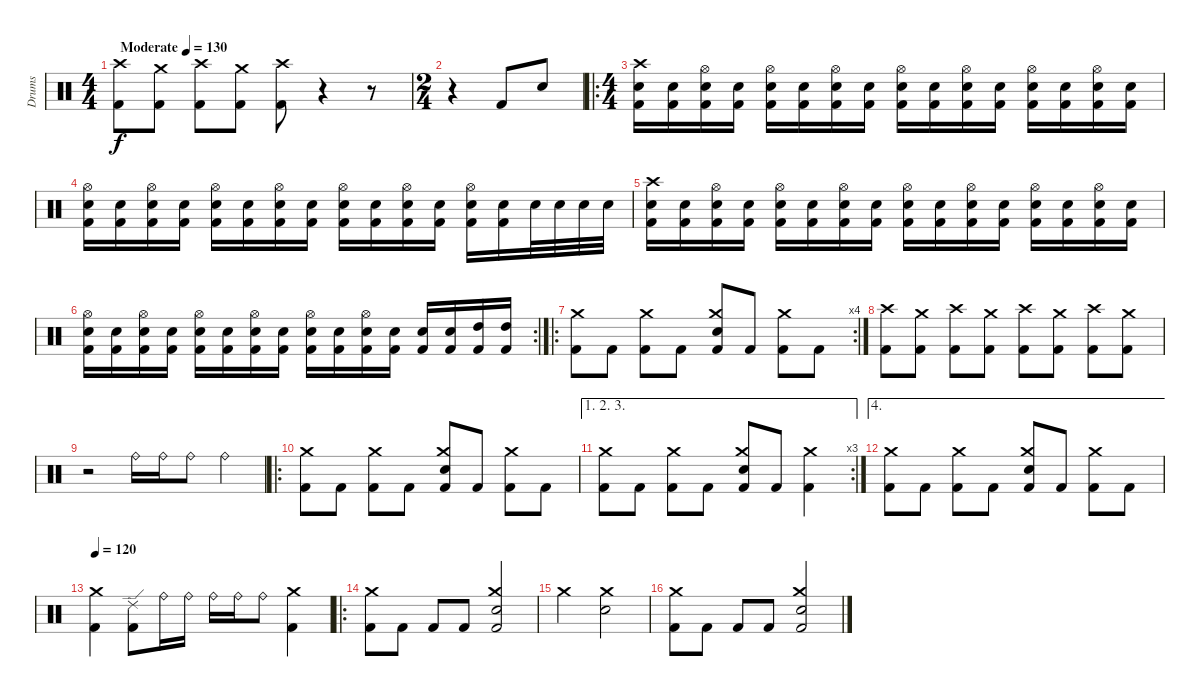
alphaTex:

\track ("Drums" "Drums") {instrument percussion}
\staff {score}
\articulation defaults
\ts (4 4)
\tempo (130 "Moderate")
\clef neutral
\ks c
("Crash high (hit)" "Kick (hit) 2").8{dy f} ("Crash medium (hit)" "Kick (hit) 2").8 ("Crash high (hit)" "Kick (hit) 2").8 ("Crash medium (hit)" "Kick (hit) 2").8 ("Crash high (hit)" "Kick (hit) 2").8 r.4 r.8 |
\ts (2 4)
r.4 "Kick (hit) 2".8 "Electric Snare (hit)".8 |
\ro
\ts (4 4)
("Crash high (hit)" "Electric Snare (hit)" "Kick (hit) 2").16 ("Electric Snare (hit)" "Kick (hit) 2").16 ("Hi-Hat (open)" "Electric Snare (hit)" "Kick (hit) 2").16 ("Electric Snare (hit)" "Kick (hit) 2").16 ("Hi-Hat (open)" "Electric Snare (hit)" "Kick (hit) 2").16 ("Electric Snare (hit)" "Kick (hit) 2").16 ("Hi-Hat (open)" "Electric Snare (hit)" "Kick (hit) 2").16 ("Electric Snare (hit)" "Kick (hit) 2").16 ("Hi-Hat (open)" "Electric Snare (hit)" "Kick (hit) 2").16 ("Electric Snare (hit)" "Kick (hit) 2").16 ("Hi-Hat (open)" "Electric Snare (hit)" "Kick (hit) 2").16 ("Electric Snare (hit)" "Kick (hit) 2").16 ("Hi-Hat (open)" "Electric Snare (hit)" "Kick (hit) 2").16 ("Electric Snare (hit)" "Kick (hit) 2").16 ("Hi-Hat (open)" "Electric Snare (hit)" "Kick (hit) 2").16 ("Electric Snare (hit)" "Kick (hit) 2").16 |
("Hi-Hat (open)" "Electric Snare (hit)" "Kick (hit) 2").16 ("Electric Snare (hit)" "Kick (hit) 2").16 ("Hi-Hat (open)" "Electric Snare (hit)" "Kick (hit) 2").16 ("Electric Snare (hit)" "Kick (hit) 2").16 ("Hi-Hat (open)" "Electric Snare (hit)" "Kick (hit) 2").16 ("Electric Snare (hit)" "Kick (hit) 2").16 ("Hi-Hat (open)" "Electric Snare (hit)" "Kick (hit) 2").16 ("Electric Snare (hit)" "Kick (hit) 2").16 ("Hi-Hat (open)" "Electric Snare (hit)" "Kick (hit) 2").16 ("Electric Snare (hit)" "Kick (hit) 2").16 ("Hi-Hat (open)" "Electric Snare (hit)" "Kick (hit) 2").16 ("Electric Snare (hit)" "Kick (hit) 2").16 ("Hi-Hat (open)" "Electric Snare (hit)" "Kick (hit) 2").16 ("Electric Snare (hit)" "Kick (hit) 2").16 "Electric Snare (hit)".32 "Electric Snare (hit)".32 "Electric Snare (hit)".32 "Electric Snare (hit)".32 |
("Crash high (hit)" "Electric Snare (hit)" "Kick (hit) 2").16 ("Electric Snare (hit)" "Kick (hit) 2").16 ("Hi-Hat (open)" "Electric Snare (hit)" "Kick (hit) 2").16 ("Electric Snare (hit)" "Kick (hit) 2").16 ("Hi-Hat (open)" "Electric Snare (hit)" "Kick (hit) 2").16 ("Electric Snare (hit)" "Kick (hit) 2").16 ("Hi-Hat (open)" "Electric Snare (hit)" "Kick (hit) 2").16 ("Electric Snare (hit)" "Kick (hit) 2").16 ("Hi-Hat (open)" "Electric Snare (hit)" "Kick (hit) 2").16 ("Electric Snare (hit)" "Kick (hit) 2").16 ("Hi-Hat (open)" "Electric Snare (hit)" "Kick (hit) 2").16 ("Electric Snare (hit)" "Kick (hit) 2").16 ("Hi-Hat (open)" "Electric Snare (hit)" "Kick (hit) 2").16 ("Electric Snare (hit)" "Kick (hit) 2").16 ("Hi-Hat (open)" "Electric Snare (hit)" "Kick (hit) 2").16 ("Electric Snare (hit)" "Kick (hit) 2").16 |
\rc 2
("Hi-Hat (open)" "Electric Snare (hit)" "Kick (hit) 2").16 ("Electric Snare (hit)" "Kick (hit) 2").16 ("Hi-Hat (open)" "Electric Snare (hit)" "Kick (hit) 2").16 ("Electric Snare (hit)" "Kick (hit) 2").16 ("Hi-Hat (open)" "Electric Snare (hit)" "Kick (hit) 2").16 ("Electric Snare (hit)" "Kick (hit) 2").16 ("Hi-Hat (open)" "Electric Snare (hit)" "Kick (hit) 2").16 ("Electric Snare (hit)" "Kick (hit) 2").16 ("Hi-Hat (open)" "Electric Snare (hit)" "Kick (hit) 2").16 ("Electric Snare (hit)" "Kick (hit) 2").16 ("Hi-Hat (open)" "Electric Snare (hit)" "Kick (hit) 2").16 ("Electric Snare (hit)" "Kick (hit) 2").16 ("Electric Snare (hit)" "Kick (hit) 2").16 ("Electric Snare (hit)" "Kick (hit) 2").16 ("High Tom (hit)" "Kick (hit) 2").16 ("High Tom (hit)" "Kick (hit) 2").16 |
\ro
\rc 4
("Crash medium (hit)" "Kick (hit) 2").8 "Kick (hit) 2".8 ("Crash medium (hit)" "Kick (hit) 2").8 "Kick (hit) 2".8 ("Crash medium (hit)" "Electric Snare (hit)" "Kick (hit) 2").8 "Kick (hit) 2".8 ("Crash medium (hit)" "Kick (hit) 2").8 "Kick (hit) 2".8 |
("Crash high (hit)" "Kick (hit) 2").8 ("Crash medium (hit)" "Kick (hit) 2").8 ("Crash high (hit)" "Kick (hit) 2").8 ("Crash medium (hit)" "Kick (hit) 2").8 ("Crash high (hit)" "Kick (hit) 2").8 ("Crash medium (hit)" "Kick (hit) 2").8 ("Crash high (hit)" "Kick (hit) 2").8 ("Crash medium (hit)" "Kick (hit) 2").8 |
r.2 "Ride (bell)".16 "Ride (bell)".16 "Ride (bell)".8 "Ride (bell)".4 |
\ro
("Crash medium (hit)" "Kick (hit) 2").8 "Kick (hit) 2".8 ("Crash medium (hit)" "Kick (hit) 2").8 "Kick (hit) 2".8 ("Crash medium (hit)" "Electric Snare (hit)" "Kick (hit) 2").8 "Kick (hit) 2".8 ("Crash medium (hit)" "Kick (hit) 2").8 "Kick (hit) 2".8 |
\ae (1 2 3)
\rc 3
("Crash medium (hit)" "Kick (hit) 2").8 "Kick (hit) 2".8 ("Crash medium (hit)" "Kick (hit) 2").8 "Kick (hit) 2".8 ("Crash medium (hit)" "Electric Snare (hit)" "Kick (hit) 2").8 "Kick (hit) 2".8 ("Crash medium (hit)" "Kick (hit) 2").4 |
\ae 4
("Crash medium (hit)" "Kick (hit) 2").8 "Kick (hit) 2".8 ("Crash medium (hit)" "Kick (hit) 2").8 "Kick (hit) 2".8 ("Crash medium (hit)" "Electric Snare (hit)" "Kick (hit) 2").8 "Kick (hit) 2".8 ("Crash medium (hit)" "Kick (hit) 2").8 "Kick (hit) 2".8 |
\tempo 120
("Crash medium (hit)" "Kick (hit) 2").4 ("Ride (edge) 2" "Kick (hit) 2").8 "Ride (bell)".16 "Ride (bell)".16 "Ride (bell)".16 "Ride (bell)".16 "Ride (bell)".8 ("Crash medium (hit)" "Kick (hit) 2").4 |
\ro
("Crash medium (hit)" "Kick (hit) 2").8 "Kick (hit) 2".8 "Kick (hit) 2".8 "Kick (hit) 2".8 ("Crash medium (hit)" "Electric Snare (hit)" "Kick (hit) 2").2 |
"Crash medium (hit)".2 ("Crash medium (hit)" "Electric Snare (hit)").2 |
("Crash medium (hit)" "Kick (hit) 2").8 "Kick (hit) 2".8 "Kick (hit) 2".8 "Kick (hit) 2".8 ("Crash medium (hit)" "Electric Snare (hit)" "Kick (hit) 2").2
